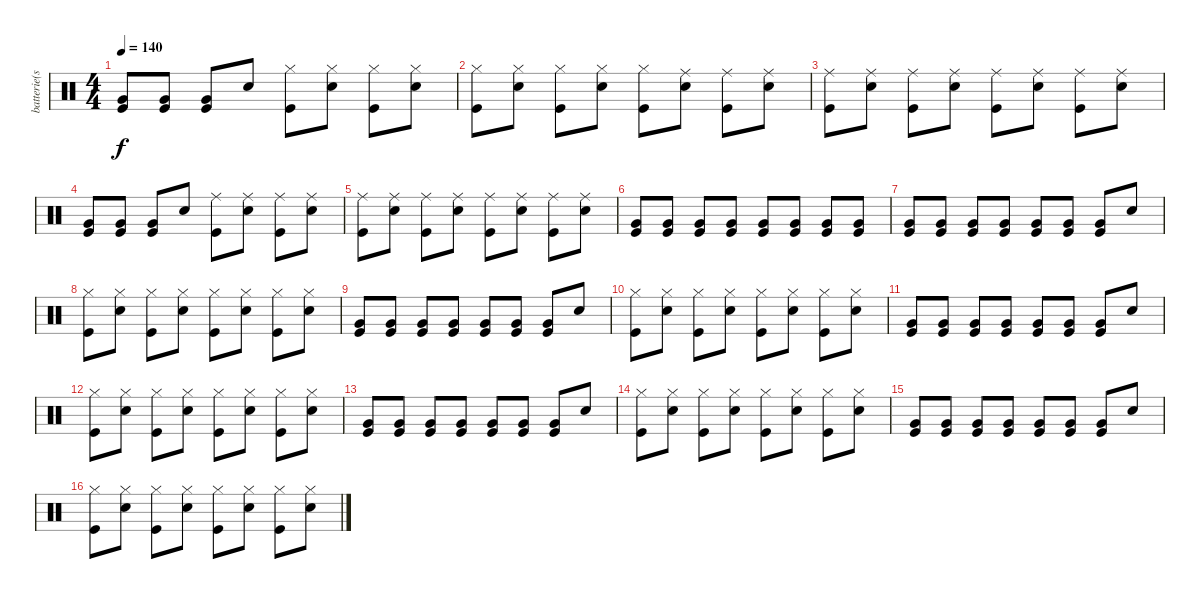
\track ("batterie(steve)" "batterie(s") {instrument percussion}
\staff {score}
\articulation defaults
\ts (4 4)
\tempo 140
\clef neutral
\ks c
("Very Low Tom (hit)" "Kick (hit)").8{dy f} ("Very Low Tom (hit)" "Kick (hit)").8 ("Very Low Tom (hit)" "Kick (hit)").8 "Snare (hit) 2".8 ("Hi-Hat (closed)" "Kick (hit)").8 ("Hi-Hat (closed)" "Snare (hit) 2").8 ("Hi-Hat (closed)" "Kick (hit)").8 ("Hi-Hat (closed)" "Snare (hit) 2").8 |
("Hi-Hat (closed)" "Kick (hit)").8 ("Hi-Hat (closed)" "Snare (hit) 2").8 ("Hi-Hat (closed)" "Kick (hit)").8 ("Hi-Hat (closed)" "Snare (hit) 2").8 ("Hi-Hat (closed)" "Kick (hit)").8 ("Ride (middle)" "Snare (hit) 2").8 ("Ride (middle)" "Kick (hit)").8 ("Ride (middle)" "Snare (hit) 2").8 |
("Ride (middle)" "Kick (hit)").8 ("Ride (middle)" "Snare (hit) 2").8 ("Ride (middle)" "Kick (hit)").8 ("Ride (middle)" "Snare (hit) 2").8 ("Ride (middle)" "Kick (hit)").8 ("Ride (middle)" "Snare (hit) 2").8 ("Ride (middle)" "Kick (hit)").8 ("Ride (middle)" "Snare (hit) 2").8 |
("Very Low Tom (hit)" "Kick (hit)").8 ("Very Low Tom (hit)" "Kick (hit)").8 ("Very Low Tom (hit)" "Kick (hit)").8 "Snare (hit) 2".8 ("Ride (middle)" "Kick (hit)").8 ("Ride (middle)" "Snare (hit) 2").8 ("Ride (middle)" "Kick (hit)").8 ("Ride (middle)" "Snare (hit) 2").8 |
("Ride (middle)" "Kick (hit)").8 ("Ride (middle)" "Snare (hit) 2").8 ("Ride (middle)" "Kick (hit)").8 ("Ride (middle)" "Snare (hit) 2").8 ("Ride (middle)" "Kick (hit)").8 ("Ride (middle)" "Snare (hit) 2").8 ("Ride (middle)" "Kick (hit)").8 ("Ride (middle)" "Snare (hit) 2").8 |
("Very Low Tom (hit)" "Kick (hit)").8 ("Very Low Tom (hit)" "Kick (hit)").8 ("Very Low Tom (hit)" "Kick (hit)").8 ("Very Low Tom (hit)" "Kick (hit)").8 ("Very Low Tom (hit)" "Kick (hit)").8 ("Very Low Tom (hit)" "Kick (hit)").8 ("Very Low Tom (hit)" "Kick (hit)").8 ("Very Low Tom (hit)" "Kick (hit)").8 |
("Very Low Tom (hit)" "Kick (hit)").8 ("Very Low Tom (hit)" "Kick (hit)").8 ("Very Low Tom (hit)" "Kick (hit)").8 ("Very Low Tom (hit)" "Kick (hit)").8 ("Very Low Tom (hit)" "Kick (hit)").8 ("Very Low Tom (hit)" "Kick (hit)").8 ("Very Low Tom (hit)" "Kick (hit)").8 "Snare (hit) 2".8 |
("Hi-Hat (closed)" "Kick (hit)").8 ("Hi-Hat (closed)" "Snare (hit) 2").8 ("Hi-Hat (closed)" "Kick (hit)").8 ("Hi-Hat (closed)" "Snare (hit) 2").8 ("Hi-Hat (closed)" "Kick (hit)").8 ("Hi-Hat (closed)" "Snare (hit) 2").8 ("Hi-Hat (closed)" "Kick (hit)").8 ("Hi-Hat (closed)" "Snare (hit) 2").8 |
("Very Low Tom (hit)" "Kick (hit)").8 ("Very Low Tom (hit)" "Kick (hit)").8 ("Very Low Tom (hit)" "Kick (hit)").8 ("Very Low Tom (hit)" "Kick (hit)").8 ("Very Low Tom (hit)" "Kick (hit)").8 ("Very Low Tom (hit)" "Kick (hit)").8 ("Very Low Tom (hit)" "Kick (hit)").8 "Snare (hit) 2".8 |
("Hi-Hat (closed)" "Kick (hit)").8 ("Hi-Hat (closed)" "Snare (hit) 2").8 ("Hi-Hat (closed)" "Kick (hit)").8 ("Hi-Hat (closed)" "Snare (hit) 2").8 ("Hi-Hat (closed)" "Kick (hit)").8 ("Hi-Hat (closed)" "Snare (hit) 2").8 ("Hi-Hat (closed)" "Kick (hit)").8 ("Hi-Hat (closed)" "Snare (hit) 2").8 |
("Very Low Tom (hit)" "Kick (hit)").8 ("Very Low Tom (hit)" "Kick (hit)").8 ("Very Low Tom (hit)" "Kick (hit)").8 ("Very Low Tom (hit)" "Kick (hit)").8 ("Very Low Tom (hit)" "Kick (hit)").8 ("Very Low Tom (hit)" "Kick (hit)").8 ("Very Low Tom (hit)" "Kick (hit)").8 "Snare (hit) 2".8 |
("Hi-Hat (closed)" "Kick (hit)").8 ("Hi-Hat (closed)" "Snare (hit) 2").8 ("Hi-Hat (closed)" "Kick (hit)").8 ("Hi-Hat (closed)" "Snare (hit) 2").8 ("Hi-Hat (closed)" "Kick (hit)").8 ("Hi-Hat (closed)" "Snare (hit) 2").8 ("Hi-Hat (closed)" "Kick (hit)").8 ("Hi-Hat (closed)" "Snare (hit) 2").8 |
("Very Low Tom (hit)" "Kick (hit)").8 ("Very Low Tom (hit)" "Kick (hit)").8 ("Very Low Tom (hit)" "Kick (hit)").8 ("Very Low Tom (hit)" "Kick (hit)").8 ("Very Low Tom (hit)" "Kick (hit)").8 ("Very Low Tom (hit)" "Kick (hit)").8 ("Very Low Tom (hit)" "Kick (hit)").8 "Snare (hit) 2".8 |
("Hi-Hat (closed)" "Kick (hit)").8 ("Hi-Hat (closed)" "Snare (hit) 2").8 ("Hi-Hat (closed)" "Kick (hit)").8 ("Hi-Hat (closed)" "Snare (hit) 2").8 ("Hi-Hat (closed)" "Kick (hit)").8 ("Hi-Hat (closed)" "Snare (hit) 2").8 ("Hi-Hat (closed)" "Kick (hit)").8 ("Hi-Hat (closed)" "Snare (hit) 2").8 |
("Very Low Tom (hit)" "Kick (hit)").8 ("Very Low Tom (hit)" "Kick (hit)").8 ("Very Low Tom (hit)" "Kick (hit)").8 ("Very Low Tom (hit)" "Kick (hit)").8 ("Very Low Tom (hit)" "Kick (hit)").8 ("Very Low Tom (hit)" "Kick (hit)").8 ("Very Low Tom (hit)" "Kick (hit)").8 "Snare (hit) 2".8 |
("Hi-Hat (closed)" "Kick (hit)").8 ("Hi-Hat (closed)" "Snare (hit) 2").8 ("Hi-Hat (closed)" "Kick (hit)").8 ("Hi-Hat (closed)" "Snare (hit) 2").8 ("Hi-Hat (closed)" "Kick (hit)").8 ("Hi-Hat (closed)" "Snare (hit) 2").8 ("Hi-Hat (closed)" "Kick (hit)").8 ("Hi-Hat (closed)" "Snare (hit) 2").8
